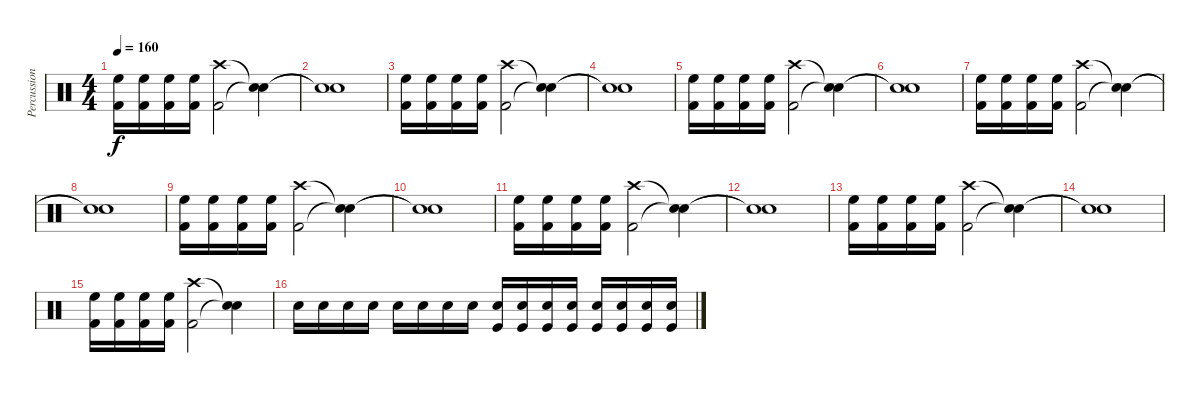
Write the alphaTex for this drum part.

\track ("Percussioni" "Percussion") {instrument percussion}
\staff {score}
\articulation defaults
\ts (4 4)
\tempo 160
\clef neutral
\ks c
("High Floor Tom (hit)" "Kick (hit) 2").16{dy f} ("High Floor Tom (hit)" "Kick (hit) 2").16 ("High Floor Tom (hit)" "Kick (hit) 2").16 ("High Floor Tom (hit)" "Kick (hit) 2").16 ("Crash high (hit)" "Kick (hit) 2").2 ("Snare (hit)"{t} "Snare (hit)"{t}).4 |
("Snare (hit)"{t} "Snare (hit)"{t}).1 |
("High Floor Tom (hit)" "Kick (hit) 2").16 ("High Floor Tom (hit)" "Kick (hit) 2").16 ("High Floor Tom (hit)" "Kick (hit) 2").16 ("High Floor Tom (hit)" "Kick (hit) 2").16 ("Crash high (hit)" "Kick (hit) 2").2 ("Snare (hit)"{t} "Snare (hit)"{t}).4 |
("Snare (hit)"{t} "Snare (hit)"{t}).1 |
("High Floor Tom (hit)" "Kick (hit) 2").16 ("High Floor Tom (hit)" "Kick (hit) 2").16 ("High Floor Tom (hit)" "Kick (hit) 2").16 ("High Floor Tom (hit)" "Kick (hit) 2").16 ("Crash high (hit)" "Kick (hit) 2").2 ("Snare (hit)"{t} "Snare (hit)"{t}).4 |
("Snare (hit)"{t} "Snare (hit)"{t}).1 |
("High Floor Tom (hit)" "Kick (hit) 2").16 ("High Floor Tom (hit)" "Kick (hit) 2").16 ("High Floor Tom (hit)" "Kick (hit) 2").16 ("High Floor Tom (hit)" "Kick (hit) 2").16 ("Crash high (hit)" "Kick (hit) 2").2 ("Snare (hit)"{t} "Snare (hit)"{t}).4 |
("Snare (hit)"{t} "Electric Snare (hit)"{t}).1 |
("High Floor Tom (hit)" "Kick (hit) 2").16 ("High Floor Tom (hit)" "Kick (hit) 2").16 ("High Floor Tom (hit)" "Kick (hit) 2").16 ("High Floor Tom (hit)" "Kick (hit) 2").16 ("Crash high (hit)" "Kick (hit) 2").2 ("Snare (hit)"{t} "Snare (hit)"{t}).4 |
("Snare (hit)"{t} "Snare (hit)"{t}).1 |
("High Floor Tom (hit)" "Kick (hit) 2").16 ("High Floor Tom (hit)" "Kick (hit) 2").16 ("High Floor Tom (hit)" "Kick (hit) 2").16 ("High Floor Tom (hit)" "Kick (hit) 2").16 ("Crash high (hit)" "Kick (hit) 2").2 ("Snare (hit)"{t} "Snare (hit)"{t}).4 |
("Snare (hit)"{t} "Snare (hit)"{t}).1 |
("High Floor Tom (hit)" "Kick (hit) 2").16 ("High Floor Tom (hit)" "Kick (hit) 2").16 ("High Floor Tom (hit)" "Kick (hit) 2").16 ("High Floor Tom (hit)" "Kick (hit) 2").16 ("Crash high (hit)" "Kick (hit) 2").2 ("Snare (hit)"{t} "Snare (hit)"{t}).4 |
("Snare (hit)"{t} "Snare (hit)"{t}).1 |
("High Floor Tom (hit)" "Kick (hit) 2").16 ("High Floor Tom (hit)" "Kick (hit) 2").16 ("High Floor Tom (hit)" "Kick (hit) 2").16 ("High Floor Tom (hit)" "Kick (hit) 2").16 ("Crash high (hit)" "Kick (hit) 2").2 ("Snare (hit)"{t} "Snare (hit)"{t}).4 |
"Electric Snare (hit)".16 "Electric Snare (hit)".16 "Electric Snare (hit)".16 "Electric Snare (hit)".16 "Electric Snare (hit)".16 "Electric Snare (hit)".16 "Electric Snare (hit)".16 "Electric Snare (hit)".16 ("Electric Snare (hit)" "Kick (hit)").16 ("Electric Snare (hit)" "Kick (hit)").16 ("Electric Snare (hit)" "Kick (hit)").16 ("Electric Snare (hit)" "Kick (hit)").16 ("Electric Snare (hit)" "Kick (hit)").16 ("Electric Snare (hit)" "Kick (hit)").16 ("Electric Snare (hit)" "Kick (hit)").16 ("Electric Snare (hit)" "Kick (hit)").16
